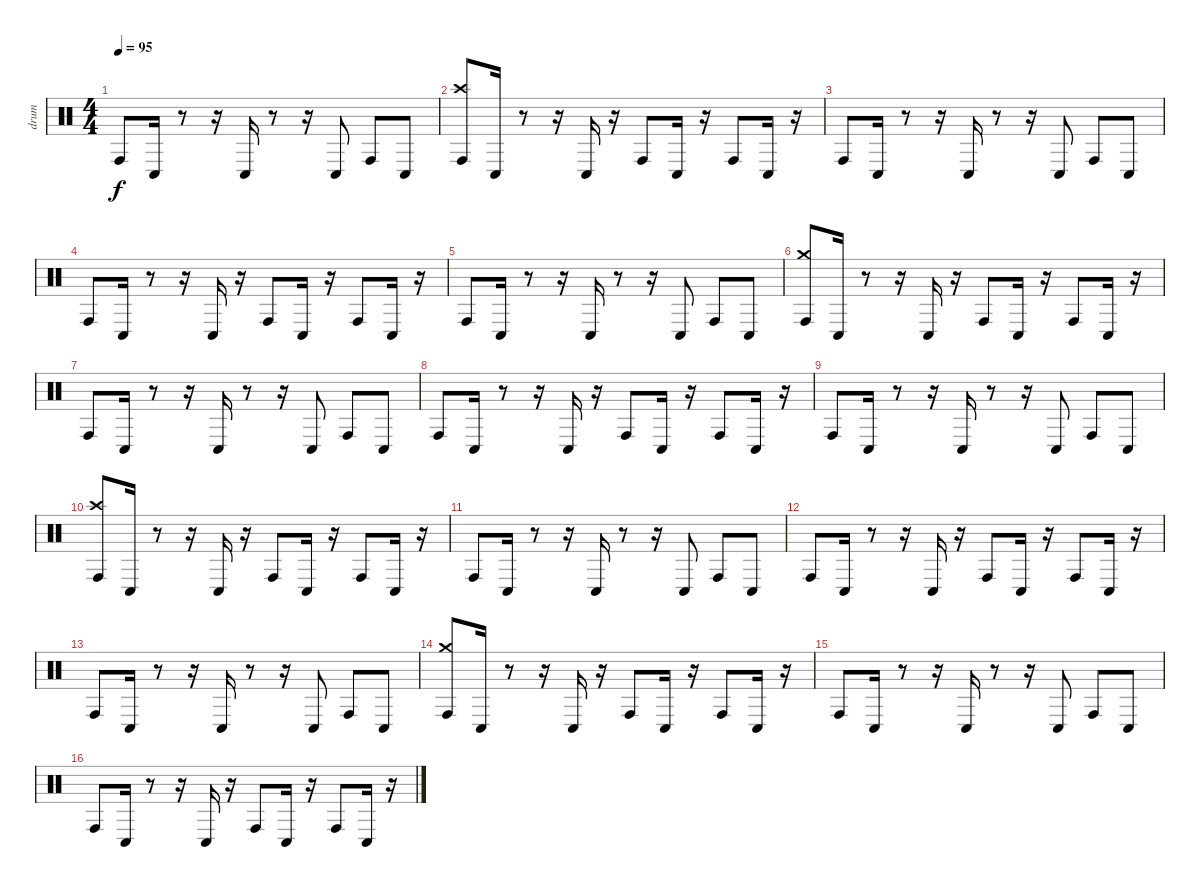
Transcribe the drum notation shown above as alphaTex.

\track ("drum" "drum") {instrument percussion}
\staff {score}
\articulation defaults
\ts (4 4)
\tempo 95
\clef neutral
\ks c "Conga high (hit)".8{dy f} "Conga low (hit)".16
r.8 r.16 "Conga low (hit)".16 r.8 r.16 "Conga low (hit)".8 "Conga high (hit)".8 "Conga low (hit)".8 |
("Conga high (hit)" "Crash high (hit)").8 "Conga low (hit)".16 r.8 r.16 "Conga low (hit)".16 r.16 "Conga high (hit)".8 "Conga low (hit)".16 r.16 "Conga high (hit)".8 "Conga low (hit)".16 r.16 |
"Conga high (hit)".8 "Conga low (hit)".16 r.8 r.16 "Conga low (hit)".16 r.8 r.16 "Conga low (hit)".8 "Conga high (hit)".8 "Conga low (hit)".8 |
"Conga high (hit)".8 "Conga low (hit)".16 r.8 r.16 "Conga low (hit)".16 r.16 "Conga high (hit)".8 "Conga low (hit)".16 r.16 "Conga high (hit)".8 "Conga low (hit)".16 r.16 |
"Conga high (hit)".8 "Conga low (hit)".16 r.8 r.16 "Conga low (hit)".16 r.8 r.16 "Conga low (hit)".8 "Conga high (hit)".8 "Conga low (hit)".8 |
("Conga high (hit)" "Crash medium (hit)").8 "Conga low (hit)".16 r.8 r.16 "Conga low (hit)".16 r.16 "Conga high (hit)".8 "Conga low (hit)".16 r.16 "Conga high (hit)".8 "Conga low (hit)".16 r.16 |
"Conga high (hit)".8 "Conga low (hit)".16 r.8 r.16 "Conga low (hit)".16 r.8 r.16 "Conga low (hit)".8 "Conga high (hit)".8 "Conga low (hit)".8 |
"Conga high (hit)".8 "Conga low (hit)".16 r.8 r.16 "Conga low (hit)".16 r.16 "Conga high (hit)".8 "Conga low (hit)".16 r.16 "Conga high (hit)".8 "Conga low (hit)".16 r.16 |
"Conga high (hit)".8 "Conga low (hit)".16 r.8 r.16 "Conga low (hit)".16 r.8 r.16 "Conga low (hit)".8 "Conga high (hit)".8 "Conga low (hit)".8 |
("Crash high (hit)" "Conga high (hit)").8 "Conga low (hit)".16 r.8 r.16 "Conga low (hit)".16 r.16 "Conga high (hit)".8 "Conga low (hit)".16 r.16 "Conga high (hit)".8 "Conga low (hit)".16 r.16 |
"Conga high (hit)".8 "Conga low (hit)".16 r.8 r.16 "Conga low (hit)".16 r.8 r.16 "Conga low (hit)".8 "Conga high (hit)".8 "Conga low (hit)".8 |
"Conga high (hit)".8 "Conga low (hit)".16 r.8 r.16 "Conga low (hit)".16 r.16 "Conga high (hit)".8 "Conga low (hit)".16 r.16 "Conga high (hit)".8 "Conga low (hit)".16 r.16 |
"Conga high (hit)".8 "Conga low (hit)".16 r.8 r.16 "Conga low (hit)".16 r.8 r.16 "Conga low (hit)".8 "Conga high (hit)".8 "Conga low (hit)".8 |
("Conga high (hit)" "Crash medium (hit)").8 "Conga low (hit)".16 r.8 r.16 "Conga low (hit)".16 r.16 "Conga high (hit)".8 "Conga low (hit)".16 r.16 "Conga high (hit)".8 "Conga low (hit)".16 r.16 |
"Conga high (hit)".8 "Conga low (hit)".16 r.8 r.16 "Conga low (hit)".16 r.8 r.16 "Conga low (hit)".8 "Conga high (hit)".8 "Conga low (hit)".8 |
"Conga high (hit)".8 "Conga low (hit)".16 r.8 r.16 "Conga low (hit)".16 r.16 "Conga high (hit)".8 "Conga low (hit)".16 r.16 "Conga high (hit)".8 "Conga low (hit)".16 r.16
